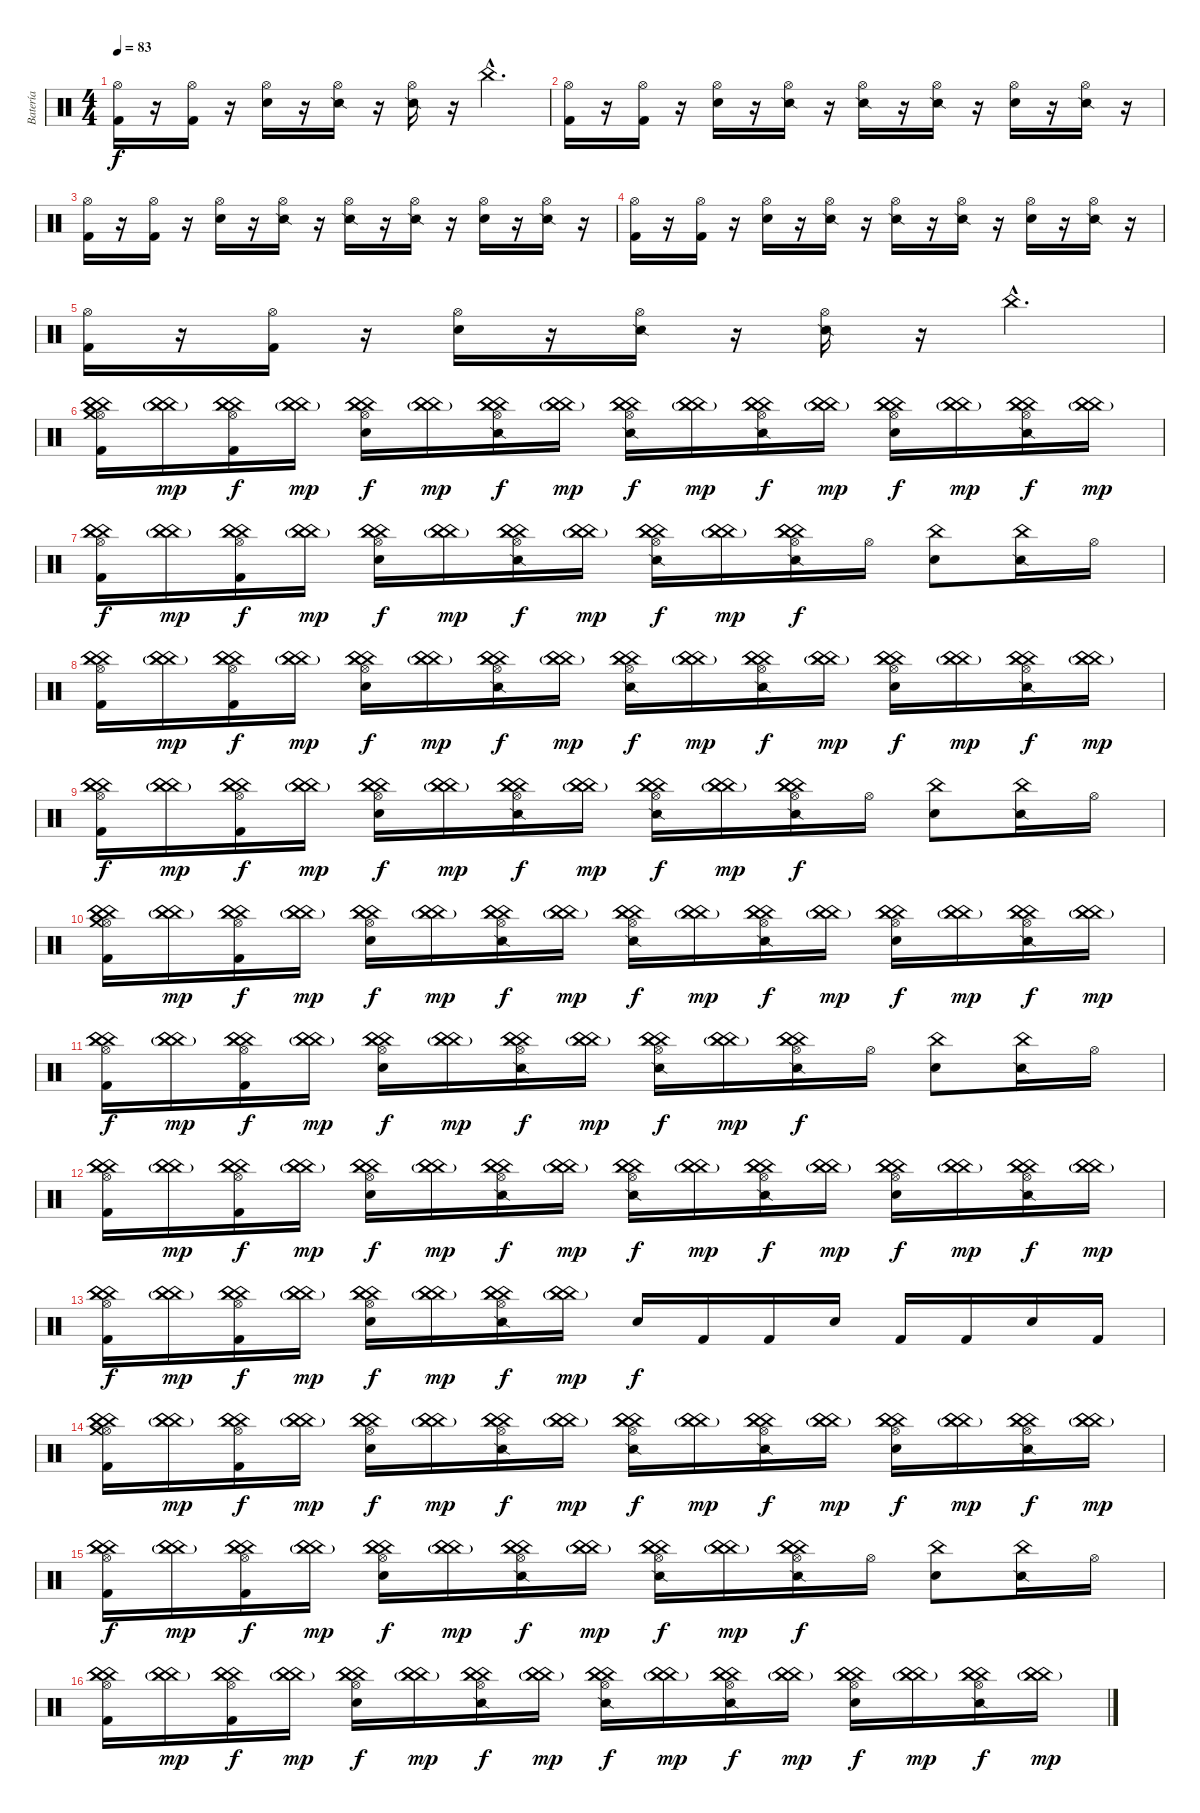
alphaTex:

\track ("Batería" "Batería") {instrument percussion}
\staff {score}
\articulation defaults
\ts (4 4)
\tempo 83
\clef neutral
\ks c
("Hi-Hat (open)" "Kick (hit) 2").16{dy f} r.16 ("Hi-Hat (open)" "Kick (hit) 2").16 r.16 ("Hi-Hat (open)" "Electric Snare (hit)").16 r.16 ("Hi-Hat (open)" "Snare (side stick) 2").16 r.16 ("Hi-Hat (open)" "Snare (side stick) 2").16 r.16 "China (hit)"{hac}.4{d} |
("Hi-Hat (open)" "Kick (hit) 2").16 r.16 ("Hi-Hat (open)" "Kick (hit) 2").16 r.16 ("Hi-Hat (open)" "Electric Snare (hit)").16 r.16 ("Hi-Hat (open)" "Snare (side stick) 2").16 r.16 ("Hi-Hat (open)" "Snare (side stick) 2").16 r.16 ("Hi-Hat (open)" "Snare (side stick) 2").16 r.16 ("Hi-Hat (open)" "Electric Snare (hit)").16 r.16 ("Hi-Hat (open)" "Snare (side stick) 2").16 r.16 |
("Hi-Hat (open)" "Kick (hit) 2").16 r.16 ("Hi-Hat (open)" "Kick (hit) 2").16 r.16 ("Hi-Hat (open)" "Electric Snare (hit)").16 r.16 ("Hi-Hat (open)" "Snare (side stick) 2").16 r.16 ("Hi-Hat (open)" "Snare (side stick) 2").16 r.16 ("Hi-Hat (open)" "Snare (side stick) 2").16 r.16 ("Hi-Hat (open)" "Electric Snare (hit)").16 r.16 ("Hi-Hat (open)" "Snare (side stick) 2").16 r.16 |
("Hi-Hat (open)" "Kick (hit) 2").16 r.16 ("Hi-Hat (open)" "Kick (hit) 2").16 r.16 ("Hi-Hat (open)" "Electric Snare (hit)").16 r.16 ("Hi-Hat (open)" "Snare (side stick) 2").16 r.16 ("Hi-Hat (open)" "Snare (side stick) 2").16 r.16 ("Hi-Hat (open)" "Snare (side stick) 2").16 r.16 ("Hi-Hat (open)" "Electric Snare (hit)").16 r.16 ("Hi-Hat (open)" "Snare (side stick) 2").16 r.16 |
("Hi-Hat (open)" "Kick (hit) 2").16 r.16 ("Hi-Hat (open)" "Kick (hit) 2").16 r.16 ("Hi-Hat (open)" "Electric Snare (hit)").16 r.16 ("Hi-Hat (open)" "Snare (side stick) 2").16 r.16 ("Hi-Hat (open)" "Snare (side stick) 2").16 r.16 "China (hit)"{hac}.4{d} |
("Hi-Hat (open)" "China (hit)" "China (hit)" "China (hit)" "Kick (hit) 2" "Crash medium (hit)").16 ("China (hit)"{g} "China (hit)"{g} "China (hit)"{g}).16{dy mp} ("Hi-Hat (open)" "China (hit)" "China (hit)" "China (hit)" "Kick (hit) 2").16{dy f} ("China (hit)"{g} "China (hit)"{g} "China (hit)"{g}).16{dy mp} ("Hi-Hat (open)" "China (hit)" "China (hit)" "China (hit)" "Electric Snare (hit)").16{dy f} ("China (hit)"{g} "China (hit)"{g} "China (hit)"{g}).16{dy mp} ("Hi-Hat (open)" "China (hit)" "China (hit)" "China (hit)" "Snare (side stick) 2").16{dy f} ("China (hit)"{g} "China (hit)"{g} "China (hit)"{g}).16{dy mp} ("Hi-Hat (open)" "China (hit)" "China (hit)" "China (hit)" "Snare (side stick) 2").16{dy f} ("China (hit)"{g} "China (hit)"{g} "China (hit)"{g}).16{dy mp} ("Hi-Hat (open)" "China (hit)" "China (hit)" "China (hit)" "Snare (side stick) 2").16{dy f} ("China (hit)"{g} "China (hit)"{g} "China (hit)"{g}).16{dy mp} ("Hi-Hat (open)" "China (hit)" "China (hit)" "China (hit)" "Electric Snare (hit)").16{dy f} ("China (hit)"{g} "China (hit)"{g} "China (hit)"{g}).16{dy mp} ("Hi-Hat (open)" "China (hit)" "China (hit)" "China (hit)" "Snare (side stick) 2").16{dy f} ("China (hit)"{g} "China (hit)"{g} "China (hit)"{g}).16{dy mp} |
("Hi-Hat (open)" "China (hit)" "China (hit)" "China (hit)" "Kick (hit) 2").16{dy f} ("China (hit)"{g} "China (hit)"{g} "China (hit)"{g}).16{dy mp} ("Hi-Hat (open)" "China (hit)" "China (hit)" "China (hit)" "Kick (hit) 2").16{dy f} ("China (hit)"{g} "China (hit)"{g} "China (hit)"{g}).16{dy mp} ("Hi-Hat (open)" "China (hit)" "China (hit)" "China (hit)" "Electric Snare (hit)").16{dy f} ("China (hit)"{g} "China (hit)"{g} "China (hit)"{g}).16{dy mp} ("Hi-Hat (open)" "China (hit)" "China (hit)" "China (hit)" "Snare (side stick) 2").16{dy f} ("China (hit)"{g} "China (hit)"{g} "China (hit)"{g}).16{dy mp} ("Hi-Hat (open)" "China (hit)" "China (hit)" "China (hit)" "Snare (side stick) 2").16{dy f} ("China (hit)"{g} "China (hit)"{g} "China (hit)"{g}).16{dy mp} ("Hi-Hat (open)" "China (hit)" "China (hit)" "China (hit)" "Snare (side stick) 2").16{dy f} "Hi-Hat (open)".16 ("China (hit)" "Electric Snare (hit)").8 ("China (hit)" "Snare (side stick) 2").16 "Hi-Hat (open)".16 |
("Hi-Hat (open)" "China (hit)" "China (hit)" "China (hit)" "Kick (hit) 2").16 ("China (hit)"{g} "China (hit)"{g} "China (hit)"{g}).16{dy mp} ("Hi-Hat (open)" "China (hit)" "China (hit)" "China (hit)" "Kick (hit) 2").16{dy f} ("China (hit)"{g} "China (hit)"{g} "China (hit)"{g}).16{dy mp} ("Hi-Hat (open)" "China (hit)" "China (hit)" "China (hit)" "Electric Snare (hit)").16{dy f} ("China (hit)"{g} "China (hit)"{g} "China (hit)"{g}).16{dy mp} ("Hi-Hat (open)" "China (hit)" "China (hit)" "China (hit)" "Snare (side stick) 2").16{dy f} ("China (hit)"{g} "China (hit)"{g} "China (hit)"{g}).16{dy mp} ("Hi-Hat (open)" "China (hit)" "China (hit)" "China (hit)" "Snare (side stick) 2").16{dy f} ("China (hit)"{g} "China (hit)"{g} "China (hit)"{g}).16{dy mp} ("Hi-Hat (open)" "China (hit)" "China (hit)" "China (hit)" "Snare (side stick) 2").16{dy f} ("China (hit)"{g} "China (hit)"{g} "China (hit)"{g}).16{dy mp} ("Hi-Hat (open)" "China (hit)" "China (hit)" "China (hit)" "Electric Snare (hit)").16{dy f} ("China (hit)"{g} "China (hit)"{g} "China (hit)"{g}).16{dy mp} ("Hi-Hat (open)" "China (hit)" "China (hit)" "China (hit)" "Snare (side stick) 2").16{dy f} ("China (hit)"{g} "China (hit)"{g} "China (hit)"{g}).16{dy mp} |
("Hi-Hat (open)" "China (hit)" "China (hit)" "China (hit)" "Kick (hit) 2").16{dy f} ("China (hit)"{g} "China (hit)"{g} "China (hit)"{g}).16{dy mp} ("Hi-Hat (open)" "China (hit)" "China (hit)" "China (hit)" "Kick (hit) 2").16{dy f} ("China (hit)"{g} "China (hit)"{g} "China (hit)"{g}).16{dy mp} ("Hi-Hat (open)" "China (hit)" "China (hit)" "China (hit)" "Electric Snare (hit)").16{dy f} ("China (hit)"{g} "China (hit)"{g} "China (hit)"{g}).16{dy mp} ("Hi-Hat (open)" "China (hit)" "China (hit)" "China (hit)" "Snare (side stick) 2").16{dy f} ("China (hit)"{g} "China (hit)"{g} "China (hit)"{g}).16{dy mp} ("Hi-Hat (open)" "China (hit)" "China (hit)" "China (hit)" "Snare (side stick) 2").16{dy f} ("China (hit)"{g} "China (hit)"{g} "China (hit)"{g}).16{dy mp} ("Hi-Hat (open)" "China (hit)" "China (hit)" "China (hit)" "Snare (side stick) 2").16{dy f} "Hi-Hat (open)".16 ("China (hit)" "Electric Snare (hit)").8 ("China (hit)" "Snare (side stick) 2").16 "Hi-Hat (open)".16 |
("Hi-Hat (open)" "China (hit)" "China (hit)" "China (hit)" "Kick (hit) 2" "Crash medium (hit)").16 ("China (hit)"{g} "China (hit)"{g} "China (hit)"{g}).16{dy mp} ("Hi-Hat (open)" "China (hit)" "China (hit)" "China (hit)" "Kick (hit) 2").16{dy f} ("China (hit)"{g} "China (hit)"{g} "China (hit)"{g}).16{dy mp} ("Hi-Hat (open)" "China (hit)" "China (hit)" "China (hit)" "Electric Snare (hit)").16{dy f} ("China (hit)"{g} "China (hit)"{g} "China (hit)"{g}).16{dy mp} ("Hi-Hat (open)" "China (hit)" "China (hit)" "China (hit)" "Snare (side stick) 2").16{dy f} ("China (hit)"{g} "China (hit)"{g} "China (hit)"{g}).16{dy mp} ("Hi-Hat (open)" "China (hit)" "China (hit)" "China (hit)" "Snare (side stick) 2").16{dy f} ("China (hit)"{g} "China (hit)"{g} "China (hit)"{g}).16{dy mp} ("Hi-Hat (open)" "China (hit)" "China (hit)" "China (hit)" "Snare (side stick) 2").16{dy f} ("China (hit)"{g} "China (hit)"{g} "China (hit)"{g}).16{dy mp} ("Hi-Hat (open)" "China (hit)" "China (hit)" "China (hit)" "Electric Snare (hit)").16{dy f} ("China (hit)"{g} "China (hit)"{g} "China (hit)"{g}).16{dy mp} ("Hi-Hat (open)" "China (hit)" "China (hit)" "China (hit)" "Snare (side stick) 2").16{dy f} ("China (hit)"{g} "China (hit)"{g} "China (hit)"{g}).16{dy mp} |
("Hi-Hat (open)" "China (hit)" "China (hit)" "China (hit)" "Kick (hit) 2").16{dy f} ("China (hit)"{g} "China (hit)"{g} "China (hit)"{g}).16{dy mp} ("Hi-Hat (open)" "China (hit)" "China (hit)" "China (hit)" "Kick (hit) 2").16{dy f} ("China (hit)"{g} "China (hit)"{g} "China (hit)"{g}).16{dy mp} ("Hi-Hat (open)" "China (hit)" "China (hit)" "China (hit)" "Electric Snare (hit)").16{dy f} ("China (hit)"{g} "China (hit)"{g} "China (hit)"{g}).16{dy mp} ("Hi-Hat (open)" "China (hit)" "China (hit)" "China (hit)" "Snare (side stick) 2").16{dy f} ("China (hit)"{g} "China (hit)"{g} "China (hit)"{g}).16{dy mp} ("Hi-Hat (open)" "China (hit)" "China (hit)" "China (hit)" "Snare (side stick) 2").16{dy f} ("China (hit)"{g} "China (hit)"{g} "China (hit)"{g}).16{dy mp} ("Hi-Hat (open)" "China (hit)" "China (hit)" "China (hit)" "Snare (side stick) 2").16{dy f} "Hi-Hat (open)".16 ("China (hit)" "Electric Snare (hit)").8 ("China (hit)" "Snare (side stick) 2").16 "Hi-Hat (open)".16 |
("Hi-Hat (open)" "China (hit)" "China (hit)" "China (hit)" "Kick (hit) 2").16 ("China (hit)"{g} "China (hit)"{g} "China (hit)"{g}).16{dy mp} ("Hi-Hat (open)" "China (hit)" "China (hit)" "China (hit)" "Kick (hit) 2").16{dy f} ("China (hit)"{g} "China (hit)"{g} "China (hit)"{g}).16{dy mp} ("Hi-Hat (open)" "China (hit)" "China (hit)" "China (hit)" "Electric Snare (hit)").16{dy f} ("China (hit)"{g} "China (hit)"{g} "China (hit)"{g}).16{dy mp} ("Hi-Hat (open)" "China (hit)" "China (hit)" "China (hit)" "Snare (side stick) 2").16{dy f} ("China (hit)"{g} "China (hit)"{g} "China (hit)"{g}).16{dy mp} ("Hi-Hat (open)" "China (hit)" "China (hit)" "China (hit)" "Snare (side stick) 2").16{dy f} ("China (hit)"{g} "China (hit)"{g} "China (hit)"{g}).16{dy mp} ("Hi-Hat (open)" "China (hit)" "China (hit)" "China (hit)" "Snare (side stick) 2").16{dy f} ("China (hit)"{g} "China (hit)"{g} "China (hit)"{g}).16{dy mp} ("Hi-Hat (open)" "China (hit)" "China (hit)" "China (hit)" "Electric Snare (hit)").16{dy f} ("China (hit)"{g} "China (hit)"{g} "China (hit)"{g}).16{dy mp} ("Hi-Hat (open)" "China (hit)" "China (hit)" "China (hit)" "Snare (side stick) 2").16{dy f} ("China (hit)"{g} "China (hit)"{g} "China (hit)"{g}).16{dy mp} |
("Hi-Hat (open)" "China (hit)" "China (hit)" "China (hit)" "Kick (hit) 2").16{dy f} ("China (hit)"{g} "China (hit)"{g} "China (hit)"{g}).16{dy mp} ("Hi-Hat (open)" "China (hit)" "China (hit)" "China (hit)" "Kick (hit) 2").16{dy f} ("China (hit)"{g} "China (hit)"{g} "China (hit)"{g}).16{dy mp} ("Hi-Hat (open)" "China (hit)" "China (hit)" "China (hit)" "Electric Snare (hit)").16{dy f} ("China (hit)"{g} "China (hit)"{g} "China (hit)"{g}).16{dy mp} ("Hi-Hat (open)" "China (hit)" "China (hit)" "China (hit)" "Snare (side stick) 2").16{dy f} ("China (hit)"{g} "China (hit)"{g} "China (hit)"{g}).16{dy mp} "Electric Snare (hit)".16{dy f} "Kick (hit) 2".16 "Kick (hit) 2".16 "Electric Snare (hit)".16 "Kick (hit) 2".16 "Kick (hit) 2".16 "Electric Snare (hit)".16 "Kick (hit) 2".16 |
("Hi-Hat (open)" "China (hit)" "China (hit)" "China (hit)" "Kick (hit) 2" "Crash medium (hit)").16 ("China (hit)"{g} "China (hit)"{g} "China (hit)"{g}).16{dy mp} ("Hi-Hat (open)" "China (hit)" "China (hit)" "China (hit)" "Kick (hit) 2").16{dy f} ("China (hit)"{g} "China (hit)"{g} "China (hit)"{g}).16{dy mp} ("Hi-Hat (open)" "China (hit)" "China (hit)" "China (hit)" "Electric Snare (hit)").16{dy f} ("China (hit)"{g} "China (hit)"{g} "China (hit)"{g}).16{dy mp} ("Hi-Hat (open)" "China (hit)" "China (hit)" "China (hit)" "Snare (side stick) 2").16{dy f} ("China (hit)"{g} "China (hit)"{g} "China (hit)"{g}).16{dy mp} ("Hi-Hat (open)" "China (hit)" "China (hit)" "China (hit)" "Snare (side stick) 2").16{dy f} ("China (hit)"{g} "China (hit)"{g} "China (hit)"{g}).16{dy mp} ("Hi-Hat (open)" "China (hit)" "China (hit)" "China (hit)" "Snare (side stick) 2").16{dy f} ("China (hit)"{g} "China (hit)"{g} "China (hit)"{g}).16{dy mp} ("Hi-Hat (open)" "China (hit)" "China (hit)" "China (hit)" "Electric Snare (hit)").16{dy f} ("China (hit)"{g} "China (hit)"{g} "China (hit)"{g}).16{dy mp} ("Hi-Hat (open)" "China (hit)" "China (hit)" "China (hit)" "Snare (side stick) 2").16{dy f} ("China (hit)"{g} "China (hit)"{g} "China (hit)"{g}).16{dy mp} |
("Hi-Hat (open)" "China (hit)" "China (hit)" "China (hit)" "Kick (hit) 2").16{dy f} ("China (hit)"{g} "China (hit)"{g} "China (hit)"{g}).16{dy mp} ("Hi-Hat (open)" "China (hit)" "China (hit)" "China (hit)" "Kick (hit) 2").16{dy f} ("China (hit)"{g} "China (hit)"{g} "China (hit)"{g}).16{dy mp} ("Hi-Hat (open)" "China (hit)" "China (hit)" "China (hit)" "Electric Snare (hit)").16{dy f} ("China (hit)"{g} "China (hit)"{g} "China (hit)"{g}).16{dy mp} ("Hi-Hat (open)" "China (hit)" "China (hit)" "China (hit)" "Snare (side stick) 2").16{dy f} ("China (hit)"{g} "China (hit)"{g} "China (hit)"{g}).16{dy mp} ("Hi-Hat (open)" "China (hit)" "China (hit)" "China (hit)" "Snare (side stick) 2").16{dy f} ("China (hit)"{g} "China (hit)"{g} "China (hit)"{g}).16{dy mp} ("Hi-Hat (open)" "China (hit)" "China (hit)" "China (hit)" "Snare (side stick) 2").16{dy f} "Hi-Hat (open)".16 ("China (hit)" "Electric Snare (hit)").8 ("China (hit)" "Snare (side stick) 2").16 "Hi-Hat (open)".16 |
("Hi-Hat (open)" "China (hit)" "China (hit)" "China (hit)" "Kick (hit) 2").16 ("China (hit)"{g} "China (hit)"{g} "China (hit)"{g}).16{dy mp} ("Hi-Hat (open)" "China (hit)" "China (hit)" "China (hit)" "Kick (hit) 2").16{dy f} ("China (hit)"{g} "China (hit)"{g} "China (hit)"{g}).16{dy mp} ("Hi-Hat (open)" "China (hit)" "China (hit)" "China (hit)" "Electric Snare (hit)").16{dy f} ("China (hit)"{g} "China (hit)"{g} "China (hit)"{g}).16{dy mp} ("Hi-Hat (open)" "China (hit)" "China (hit)" "China (hit)" "Snare (side stick) 2").16{dy f} ("China (hit)"{g} "China (hit)"{g} "China (hit)"{g}).16{dy mp} ("Hi-Hat (open)" "China (hit)" "China (hit)" "China (hit)" "Snare (side stick) 2").16{dy f} ("China (hit)"{g} "China (hit)"{g} "China (hit)"{g}).16{dy mp} ("Hi-Hat (open)" "China (hit)" "China (hit)" "China (hit)" "Snare (side stick) 2").16{dy f} ("China (hit)"{g} "China (hit)"{g} "China (hit)"{g}).16{dy mp} ("Hi-Hat (open)" "China (hit)" "China (hit)" "China (hit)" "Electric Snare (hit)").16{dy f} ("China (hit)"{g} "China (hit)"{g} "China (hit)"{g}).16{dy mp} ("Hi-Hat (open)" "China (hit)" "China (hit)" "China (hit)" "Snare (side stick) 2").16{dy f} ("China (hit)"{g} "China (hit)"{g} "China (hit)"{g}).16{dy mp}
